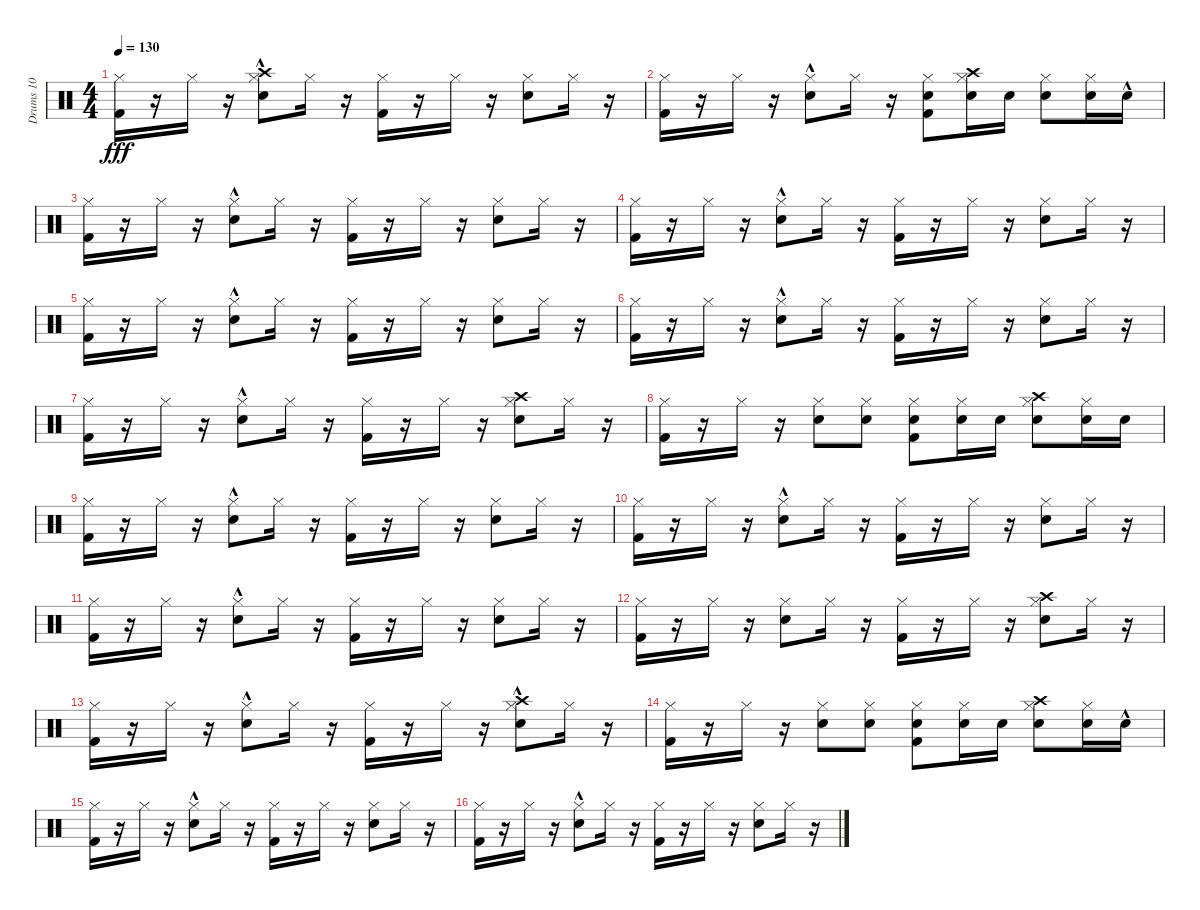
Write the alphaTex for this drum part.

\track ("Drums 10            " "Drums 10  ") {instrument percussion}
\staff {score}
\articulation defaults
\ts (4 4)
\tempo 130
\clef neutral
\ks c
("Kick (hit) 2" "Hi-Hat (closed)").16{dy fff} r.16 "Hi-Hat (closed)".16 r.16 ("Snare (hit) 2"{hac} "Hi-Hat (closed)" "Crash high (hit)").8 "Hi-Hat (closed)".16 r.16 ("Kick (hit) 2" "Hi-Hat (closed)").16 r.16 "Hi-Hat (closed)".16 r.16 ("Snare (hit) 2" "Hi-Hat (closed)").8 "Hi-Hat (closed)".16 r.16 |
("Kick (hit) 2" "Hi-Hat (closed)").16 r.16 "Hi-Hat (closed)".16 r.16 ("Snare (hit) 2"{hac} "Hi-Hat (closed)").8 "Hi-Hat (closed)".16 r.16 ("Kick (hit) 2" "Snare (hit) 2" "Hi-Hat (closed)").8 ("Snare (hit) 2" "Hi-Hat (closed)" "Crash high (hit)").16 "Snare (hit) 2".16 ("Snare (hit) 2" "Hi-Hat (closed)").8 ("Snare (hit) 2" "Hi-Hat (closed)").16 "Snare (hit) 2"{hac}.16 |
("Kick (hit) 2" "Hi-Hat (closed)").16 r.16 "Hi-Hat (closed)".16 r.16 ("Snare (hit) 2"{hac} "Hi-Hat (closed)").8 "Hi-Hat (closed)".16 r.16 ("Kick (hit) 2" "Hi-Hat (closed)").16 r.16 "Hi-Hat (closed)".16 r.16 ("Snare (hit) 2" "Hi-Hat (closed)").8 "Hi-Hat (closed)".16 r.16 |
("Kick (hit) 2" "Hi-Hat (closed)").16 r.16 "Hi-Hat (closed)".16 r.16 ("Snare (hit) 2"{hac} "Hi-Hat (closed)").8 "Hi-Hat (closed)".16 r.16 ("Kick (hit) 2" "Hi-Hat (closed)").16 r.16 "Hi-Hat (closed)".16 r.16 ("Snare (hit) 2" "Hi-Hat (closed)").8 "Hi-Hat (closed)".16 r.16 |
("Kick (hit) 2" "Hi-Hat (closed)").16 r.16 "Hi-Hat (closed)".16 r.16 ("Snare (hit) 2"{hac} "Hi-Hat (closed)").8 "Hi-Hat (closed)".16 r.16 ("Kick (hit) 2" "Hi-Hat (closed)").16 r.16 "Hi-Hat (closed)".16 r.16 ("Snare (hit) 2" "Hi-Hat (closed)").8 "Hi-Hat (closed)".16 r.16 |
("Kick (hit) 2" "Hi-Hat (closed)").16 r.16 "Hi-Hat (closed)".16 r.16 ("Snare (hit) 2"{hac} "Hi-Hat (closed)").8 "Hi-Hat (closed)".16 r.16 ("Kick (hit) 2" "Hi-Hat (closed)").16 r.16 "Hi-Hat (closed)".16 r.16 ("Snare (hit) 2" "Hi-Hat (closed)").8 "Hi-Hat (closed)".16 r.16 |
("Kick (hit) 2" "Hi-Hat (closed)").16 r.16 "Hi-Hat (closed)".16 r.16 ("Snare (hit) 2"{hac} "Hi-Hat (closed)").8 "Hi-Hat (closed)".16 r.16 ("Kick (hit) 2" "Hi-Hat (closed)").16 r.16 "Hi-Hat (closed)".16 r.16 ("Snare (hit) 2" "Hi-Hat (closed)" "Crash high (hit)").8 "Hi-Hat (closed)".16 r.16 |
("Kick (hit) 2" "Hi-Hat (closed)").16 r.16 "Hi-Hat (closed)".16 r.16 ("Snare (hit) 2" "Hi-Hat (closed)").8 ("Snare (hit) 2" "Hi-Hat (closed)").8 ("Kick (hit) 2" "Snare (hit) 2" "Hi-Hat (closed)").8 ("Snare (hit) 2" "Hi-Hat (closed)").16 "Snare (hit) 2".16 ("Snare (hit) 2" "Hi-Hat (closed)" "Crash high (hit)").8 ("Snare (hit) 2" "Hi-Hat (closed)").16 "Snare (hit) 2".16 |
("Kick (hit) 2" "Hi-Hat (closed)").16 r.16 "Hi-Hat (closed)".16 r.16 ("Snare (hit) 2"{hac} "Hi-Hat (closed)").8 "Hi-Hat (closed)".16 r.16 ("Kick (hit) 2" "Hi-Hat (closed)").16 r.16 "Hi-Hat (closed)".16 r.16 ("Snare (hit) 2" "Hi-Hat (closed)").8 "Hi-Hat (closed)".16 r.16 |
("Kick (hit) 2" "Hi-Hat (closed)").16 r.16 "Hi-Hat (closed)".16 r.16 ("Snare (hit) 2"{hac} "Hi-Hat (closed)").8 "Hi-Hat (closed)".16 r.16 ("Kick (hit) 2" "Hi-Hat (closed)").16 r.16 "Hi-Hat (closed)".16 r.16 ("Snare (hit) 2" "Hi-Hat (closed)").8 "Hi-Hat (closed)".16 r.16 |
("Kick (hit) 2" "Hi-Hat (closed)").16 r.16 "Hi-Hat (closed)".16 r.16 ("Snare (hit) 2"{hac} "Hi-Hat (closed)").8 "Hi-Hat (closed)".16 r.16 ("Kick (hit) 2" "Hi-Hat (closed)").16 r.16 "Hi-Hat (closed)".16 r.16 ("Snare (hit) 2" "Hi-Hat (closed)").8 "Hi-Hat (closed)".16 r.16 |
("Kick (hit) 2" "Hi-Hat (closed)").16 r.16 "Hi-Hat (closed)".16 r.16 ("Snare (hit) 2" "Hi-Hat (closed)").8 "Hi-Hat (closed)".16 r.16 ("Kick (hit) 2" "Hi-Hat (closed)").16 r.16 "Hi-Hat (closed)".16 r.16 ("Snare (hit) 2" "Hi-Hat (closed)" "Crash high (hit)").8 "Hi-Hat (closed)".16 r.16 |
("Kick (hit) 2" "Hi-Hat (closed)").16 r.16 "Hi-Hat (closed)".16 r.16 ("Snare (hit) 2"{hac} "Hi-Hat (closed)").8 "Hi-Hat (closed)".16 r.16 ("Kick (hit) 2" "Hi-Hat (closed)").16 r.16 "Hi-Hat (closed)".16 r.16 ("Snare (hit) 2"{hac} "Hi-Hat (closed)" "Crash high (hit)").8 "Hi-Hat (closed)".16 r.16 |
("Kick (hit) 2" "Hi-Hat (closed)").16 r.16 "Hi-Hat (closed)".16 r.16 ("Snare (hit) 2" "Hi-Hat (closed)").8 ("Snare (hit) 2" "Hi-Hat (closed)").8 ("Kick (hit) 2" "Snare (hit) 2" "Hi-Hat (closed)").8 ("Snare (hit) 2" "Hi-Hat (closed)").16 "Snare (hit) 2".16 ("Snare (hit) 2" "Hi-Hat (closed)" "Crash high (hit)").8 ("Snare (hit) 2" "Hi-Hat (closed)").16 "Snare (hit) 2"{hac}.16 |
("Kick (hit) 2" "Hi-Hat (closed)").16 r.16 "Hi-Hat (closed)".16 r.16 ("Snare (hit) 2"{hac} "Hi-Hat (closed)").8 "Hi-Hat (closed)".16 r.16 ("Kick (hit) 2" "Hi-Hat (closed)").16 r.16 "Hi-Hat (closed)".16 r.16 ("Snare (hit) 2" "Hi-Hat (closed)").8 "Hi-Hat (closed)".16 r.16 |
("Kick (hit) 2" "Hi-Hat (closed)").16 r.16 "Hi-Hat (closed)".16 r.16 ("Snare (hit) 2"{hac} "Hi-Hat (closed)").8 "Hi-Hat (closed)".16 r.16 ("Kick (hit) 2" "Hi-Hat (closed)").16 r.16 "Hi-Hat (closed)".16 r.16 ("Snare (hit) 2" "Hi-Hat (closed)").8 "Hi-Hat (closed)".16 r.16
